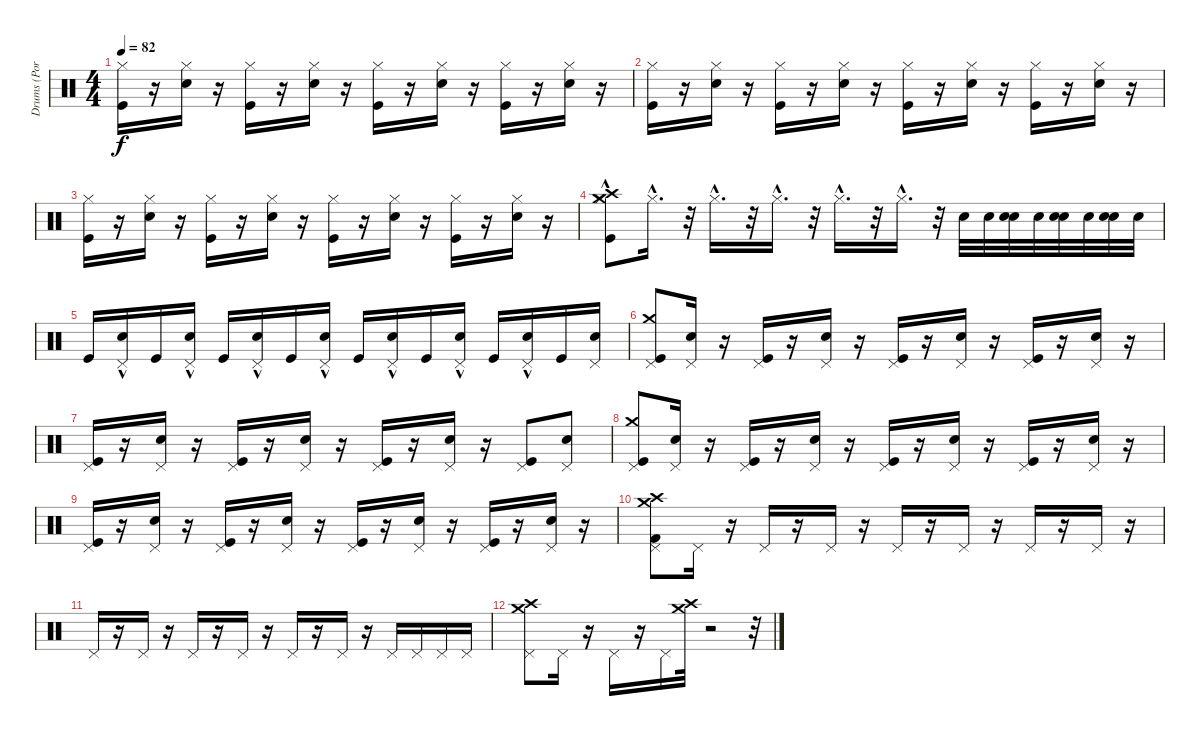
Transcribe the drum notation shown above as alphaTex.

\track ("Drums (Poruchik)" "Drums (Por") {instrument percussion}
\staff {score}
\articulation defaults
\ts (4 4)
\tempo 82
\clef neutral
\ks c
("Kick (hit)" "Hi-Hat (closed)").16{dy f} r.16 ("Hi-Hat (closed)" "Snare (hit) 2").16 r.16 ("Hi-Hat (closed)" "Kick (hit)").16 r.16 ("Hi-Hat (closed)" "Snare (hit) 2").16 r.16 ("Hi-Hat (closed)" "Kick (hit)").16 r.16 ("Hi-Hat (closed)" "Snare (hit) 2").16 r.16 ("Kick (hit)" "Hi-Hat (closed)").16 r.16 ("Hi-Hat (closed)" "Snare (hit) 2").16 r.16 |
("Kick (hit)" "Hi-Hat (closed)").16 r.16 ("Hi-Hat (closed)" "Snare (hit) 2").16 r.16 ("Hi-Hat (closed)" "Kick (hit)").16 r.16 ("Snare (hit) 2" "Hi-Hat (closed)").16 r.16 ("Hi-Hat (closed)" "Kick (hit)").16 r.16 ("Snare (hit) 2" "Hi-Hat (closed)").16 r.16 ("Hi-Hat (closed)" "Kick (hit)").16 r.16 ("Snare (hit) 2" "Hi-Hat (closed)").16 r.16 |
("Kick (hit)" "Hi-Hat (closed)").16 r.16 ("Hi-Hat (closed)" "Snare (hit) 2").16 r.16 ("Kick (hit)" "Hi-Hat (closed)").16 r.16 ("Snare (hit) 2" "Hi-Hat (closed)").16 r.16 ("Hi-Hat (closed)" "Kick (hit)").16 r.16 ("Hi-Hat (closed)" "Snare (hit) 2").16 r.16 ("Kick (hit)" "Hi-Hat (closed)").16 r.16 ("Hi-Hat (closed)" "Snare (hit) 2").16 r.16 |
("Crash high (hit)" "Hi-Hat (closed)"{hac} "Kick (hit)" "Crash medium (hit)").8 "Hi-Hat (closed)"{hac}.16{d} r.32 "Hi-Hat (closed)"{hac}.16{d} r.32 "Hi-Hat (closed)"{hac}.16{d} r.32 "Hi-Hat (closed)"{hac}.16{d} r.32 "Hi-Hat (closed)"{hac}.16{d} r.32 "Snare (hit) 2".32 "Snare (hit) 2".32 ("Snare (hit) 2" "Snare (hit) 2").32 "Snare (hit) 2".32 ("Snare (hit) 2" "Snare (hit) 2").32 "Snare (hit) 2".32 ("Snare (hit) 2" "Snare (hit) 2").32 "Snare (hit) 2".32 |
"Kick (hit)".16 ("Snare (hit) 2" "Pedal Hi-Hat (hit)"{hac}).16 "Kick (hit)".16 ("Pedal Hi-Hat (hit)"{hac} "Snare (hit) 2").16 "Kick (hit)".16 ("Snare (hit) 2" "Pedal Hi-Hat (hit)"{hac}).16 "Kick (hit)".16 ("Snare (hit) 2" "Pedal Hi-Hat (hit)"{hac}).16 "Kick (hit)".16 ("Snare (hit) 2" "Pedal Hi-Hat (hit)"{hac}).16 "Kick (hit)".16 ("Snare (hit) 2" "Pedal Hi-Hat (hit)"{hac}).16 "Kick (hit)".16 ("Pedal Hi-Hat (hit)"{hac} "Snare (hit) 2").16 "Kick (hit)".16 ("Pedal Hi-Hat (hit)" "Snare (hit) 2").16 |
("Pedal Hi-Hat (hit)" "Kick (hit)" "Crash medium (hit)").8 ("Snare (hit) 2" "Pedal Hi-Hat (hit)").16 r.16 ("Kick (hit)" "Pedal Hi-Hat (hit)").16 r.16 ("Pedal Hi-Hat (hit)" "Snare (hit) 2").16 r.16 ("Pedal Hi-Hat (hit)" "Kick (hit)").16 r.16 ("Snare (hit) 2" "Pedal Hi-Hat (hit)").16 r.16 ("Pedal Hi-Hat (hit)" "Kick (hit)").16 r.16 ("Snare (hit) 2" "Pedal Hi-Hat (hit)").16 r.16 |
("Kick (hit)" "Pedal Hi-Hat (hit)").16 r.16 ("Pedal Hi-Hat (hit)" "Snare (hit) 2").16 r.16 ("Kick (hit)" "Pedal Hi-Hat (hit)").16 r.16 ("Snare (hit) 2" "Pedal Hi-Hat (hit)").16 r.16 ("Pedal Hi-Hat (hit)" "Kick (hit)").16 r.16 ("Snare (hit) 2" "Pedal Hi-Hat (hit)").16 r.16 ("Kick (hit)" "Pedal Hi-Hat (hit)").8 ("Pedal Hi-Hat (hit)" "Snare (hit) 2").8 |
("Kick (hit)" "Crash medium (hit)" "Pedal Hi-Hat (hit)").8 ("Pedal Hi-Hat (hit)" "Snare (hit) 2").16 r.16 ("Kick (hit)" "Pedal Hi-Hat (hit)").16 r.16 ("Pedal Hi-Hat (hit)" "Snare (hit) 2").16 r.16 ("Kick (hit)" "Pedal Hi-Hat (hit)").16 r.16 ("Pedal Hi-Hat (hit)" "Snare (hit) 2").16 r.16 ("Pedal Hi-Hat (hit)" "Kick (hit)").16 r.16 ("Snare (hit) 2" "Pedal Hi-Hat (hit)").16 r.16 |
("Pedal Hi-Hat (hit)" "Kick (hit)").16 r.16 ("Snare (hit) 2" "Pedal Hi-Hat (hit)").16 r.16 ("Pedal Hi-Hat (hit)" "Kick (hit)").16 r.16 ("Snare (hit) 2" "Pedal Hi-Hat (hit)").16 r.16 ("Kick (hit)" "Pedal Hi-Hat (hit)").16 r.16 ("Pedal Hi-Hat (hit)" "Snare (hit) 2").16 r.16 ("Kick (hit)" "Pedal Hi-Hat (hit)").16 r.16 ("Snare (hit) 2" "Pedal Hi-Hat (hit)").16 r.16 |
("Crash medium (hit)" "Pedal Hi-Hat (hit)" "Crash high (hit)" "Kick (hit) 2").8 "Pedal Hi-Hat (hit)".16 r.16 "Pedal Hi-Hat (hit)".16 r.16 "Pedal Hi-Hat (hit)".16 r.16 "Pedal Hi-Hat (hit)".16 r.16 "Pedal Hi-Hat (hit)".16 r.16 "Pedal Hi-Hat (hit)".16 r.16 "Pedal Hi-Hat (hit)".16 r.16 |
"Pedal Hi-Hat (hit)".16 r.16 "Pedal Hi-Hat (hit)".16 r.16 "Pedal Hi-Hat (hit)".16 r.16 "Pedal Hi-Hat (hit)".16 r.16 "Pedal Hi-Hat (hit)".16 r.16 "Pedal Hi-Hat (hit)".16 r.16 "Pedal Hi-Hat (hit)".16 "Pedal Hi-Hat (hit)".16 "Pedal Hi-Hat (hit)".16 "Pedal Hi-Hat (hit)".16 |
("Crash high (hit)" "Crash medium (hit)" "Pedal Hi-Hat (hit)").8 "Pedal Hi-Hat (hit)".16 r.16 "Pedal Hi-Hat (hit)".16 r.16 "Pedal Hi-Hat (hit)".16 ("Crash high (hit)" "Crash medium (hit)").32 r.2 r.32
